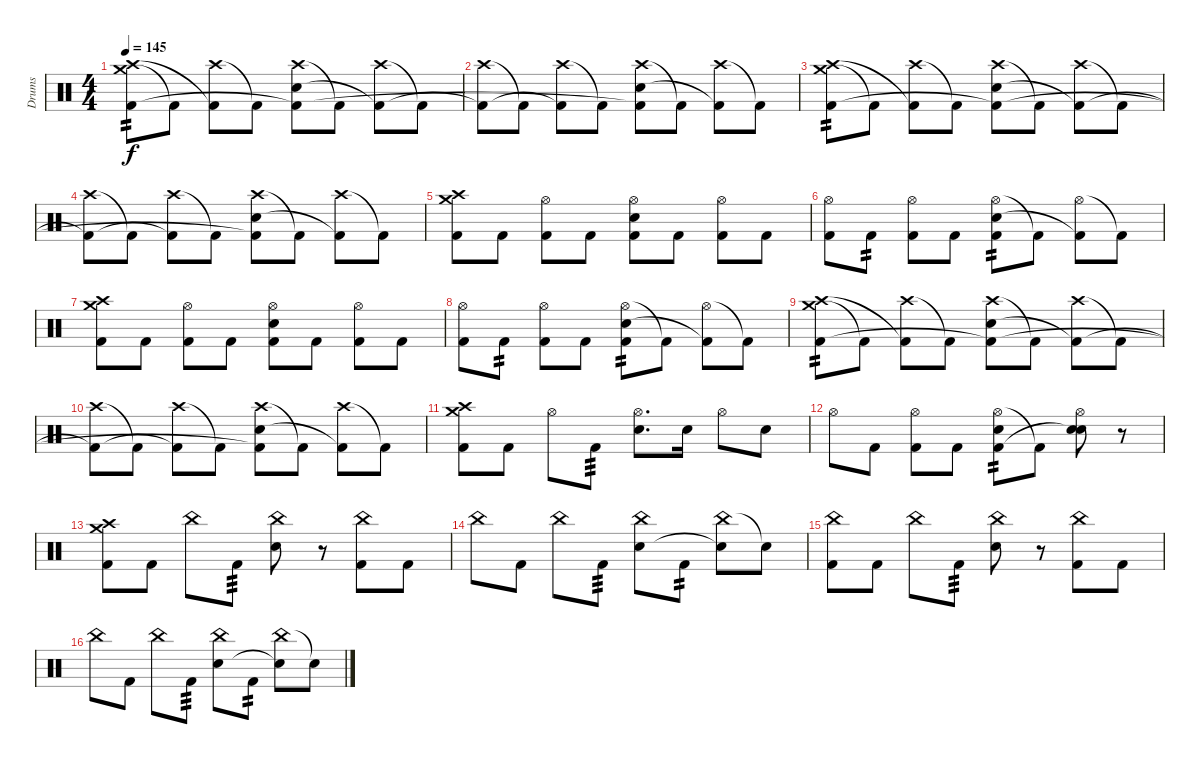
\track ("Drums" "Drums") {instrument percussion}
\staff {score}
\articulation defaults
\ts (4 4)
\tempo 145
\clef neutral
\ks c
("Crash medium (hit)" "Crash high (hit)" "Kick (hit) 2").8{tp 2 dy f} "Kick (hit) 2"{t}.8 ("Crash high (hit)" "Kick (hit) 2"{t}).8 "Kick (hit) 2"{t}.8 ("Crash high (hit)" "Electric Snare (hit)" "Kick (hit) 2"{t}).8 "Kick (hit) 2"{t}.8 ("Crash high (hit)" "Kick (hit) 2"{t}).8 "Kick (hit) 2"{t}.8 |
("Crash high (hit)" "Kick (hit) 2"{t}).8 "Kick (hit) 2"{t}.8 ("Crash high (hit)" "Kick (hit) 2"{t}).8 "Kick (hit) 2"{t}.8 ("Crash high (hit)" "Electric Snare (hit)" "Kick (hit) 2"{t}).8 "Kick (hit) 2"{t}.8 ("Crash high (hit)" "Kick (hit) 2"{t}).8 "Kick (hit) 2"{t}.8 |
("Crash medium (hit)" "Crash high (hit)" "Kick (hit) 2").8{tp 2} "Kick (hit) 2"{t}.8 ("Crash high (hit)" "Kick (hit) 2"{t}).8 "Kick (hit) 2"{t}.8 ("Crash high (hit)" "Electric Snare (hit)" "Kick (hit) 2"{t}).8 "Kick (hit) 2"{t}.8 ("Crash high (hit)" "Kick (hit) 2"{t}).8 "Kick (hit) 2"{t}.8 |
("Crash high (hit)" "Kick (hit) 2"{t}).8 "Kick (hit) 2"{t}.8 ("Crash high (hit)" "Kick (hit) 2"{t}).8 "Kick (hit) 2"{t}.8 ("Crash high (hit)" "Electric Snare (hit)" "Kick (hit) 2"{t}).8 "Kick (hit) 2"{t}.8 ("Crash high (hit)" "Kick (hit) 2"{t}).8 "Kick (hit) 2"{t}.8 |
("Crash medium (hit)" "Crash high (hit)" "Kick (hit) 2").8 "Kick (hit) 2".8 ("Hi-Hat (open)" "Kick (hit) 2").8 "Kick (hit) 2".8 ("Hi-Hat (open)" "Electric Snare (hit)" "Kick (hit) 2").8 "Kick (hit) 2".8 ("Hi-Hat (open)" "Kick (hit) 2").8 "Kick (hit) 2".8 |
("Hi-Hat (open)" "Kick (hit) 2").8 "Kick (hit) 2".8{tp 2} ("Hi-Hat (open)" "Kick (hit) 2").8 "Kick (hit) 2".8 ("Hi-Hat (open)" "Electric Snare (hit)" "Kick (hit) 2").8{tp 2} "Kick (hit) 2"{t}.8 ("Hi-Hat (open)" "Kick (hit) 2"{t}).8 "Kick (hit) 2"{t}.8 |
("Crash medium (hit)" "Crash high (hit)" "Kick (hit) 2").8 "Kick (hit) 2".8 ("Hi-Hat (open)" "Kick (hit) 2").8 "Kick (hit) 2".8 ("Hi-Hat (open)" "Electric Snare (hit)" "Kick (hit) 2").8 "Kick (hit) 2".8 ("Hi-Hat (open)" "Kick (hit) 2").8 "Kick (hit) 2".8 |
("Hi-Hat (open)" "Kick (hit) 2").8 "Kick (hit) 2".8{tp 2} ("Hi-Hat (open)" "Kick (hit) 2").8 "Kick (hit) 2".8 ("Hi-Hat (open)" "Electric Snare (hit)" "Kick (hit) 2").8{tp 2} "Kick (hit) 2"{t}.8 ("Hi-Hat (open)" "Kick (hit) 2"{t}).8 "Kick (hit) 2"{t}.8 |
("Crash medium (hit)" "Crash high (hit)" "Kick (hit) 2").8{tp 2} "Kick (hit) 2"{t}.8 ("Crash high (hit)" "Kick (hit) 2"{t}).8 "Kick (hit) 2"{t}.8 ("Crash high (hit)" "Electric Snare (hit)" "Kick (hit) 2"{t}).8 "Kick (hit) 2"{t}.8 ("Crash high (hit)" "Kick (hit) 2"{t}).8 "Kick (hit) 2"{t}.8 |
("Crash high (hit)" "Kick (hit) 2"{t}).8 "Kick (hit) 2"{t}.8 ("Crash high (hit)" "Kick (hit) 2"{t}).8 "Kick (hit) 2"{t}.8 ("Crash high (hit)" "Electric Snare (hit)" "Kick (hit) 2"{t}).8 "Kick (hit) 2"{t}.8 ("Crash high (hit)" "Kick (hit) 2"{t}).8 "Kick (hit) 2"{t}.8 |
("Crash medium (hit)" "Crash high (hit)" "Kick (hit) 2").8{volume 5} "Kick (hit) 2".8 "Hi-Hat (open)".8 "Kick (hit) 2".8{tp 3} ("Hi-Hat (open)" "Electric Snare (hit)").8{d} "Electric Snare (hit)".16 "Hi-Hat (open)".8 "Electric Snare (hit)".8 |
"Hi-Hat (open)".8 "Kick (hit) 2".8 ("Hi-Hat (open)" "Kick (hit) 2").8 "Kick (hit) 2".8 ("Hi-Hat (open)" "Electric Snare (hit)" "Kick (hit) 2").8{tp 2} "Kick (hit) 2"{t}.8 ("Hi-Hat (open)" "Electric Snare (hit)" "Snare (hit)"{t}).8 r.8 |
("Crash medium (hit)" "Crash high (hit)" "Kick (hit) 2").8{volume 13} "Kick (hit) 2".8 "China (hit)".8 "Kick (hit) 2".8{tp 3} ("China (hit)" "Electric Snare (hit)").8 r.8 ("China (hit)" "Kick (hit) 2").8 "Kick (hit) 2".8 |
"China (hit)".8 "Kick (hit) 2".8 "China (hit)".8 "Kick (hit) 2".8{tp 3} ("China (hit)" "Electric Snare (hit)").8 "Kick (hit) 2".8{tp 2} ("China (hit)" "Snare (hit)"{t}).8 "Snare (hit)"{t}.8 |
("China (hit)" "Kick (hit) 2").8 "Kick (hit) 2".8 "China (hit)".8 "Kick (hit) 2".8{tp 3} ("China (hit)" "Electric Snare (hit)").8 r.8 ("China (hit)" "Kick (hit) 2").8 "Kick (hit) 2".8 |
"China (hit)".8 "Kick (hit) 2".8 "China (hit)".8 "Kick (hit) 2".8{tp 3} ("China (hit)" "Electric Snare (hit)").8 "Kick (hit) 2".8{tp 2} ("China (hit)" "Snare (hit)"{t}).8 "Snare (hit)"{t}.8
